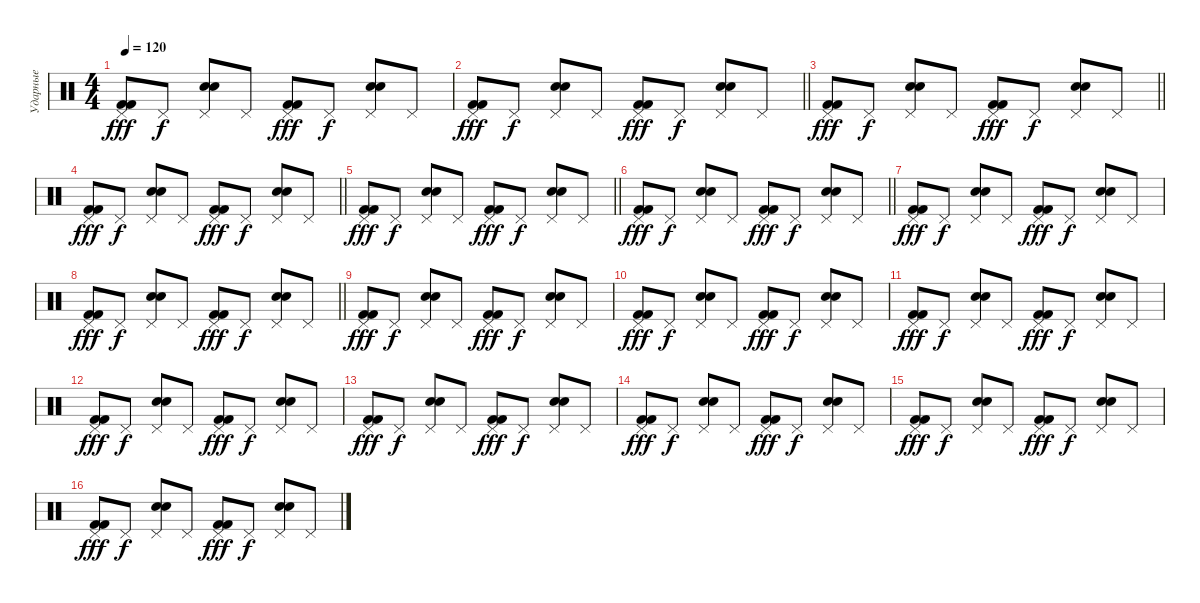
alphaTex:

\track ("Ударные" "Ударные") {solo instrument percussion}
\staff {score}
\articulation defaults
\ts (4 4)
\tempo 120
\clef neutral
\ks c
("Kick (hit) 2" "Kick (hit) 2" "Pedal Hi-Hat (hit)").8{dy fff} "Pedal Hi-Hat (hit)".8{dy f} ("Electric Snare (hit)" "Electric Snare (hit)" "Pedal Hi-Hat (hit)").8 "Pedal Hi-Hat (hit)".8 ("Kick (hit) 2" "Kick (hit) 2" "Pedal Hi-Hat (hit)").8{dy fff} "Pedal Hi-Hat (hit)".8{dy f} ("Electric Snare (hit)" "Electric Snare (hit)" "Pedal Hi-Hat (hit)").8 "Pedal Hi-Hat (hit)".8 |
\barLineRight lightlight
("Kick (hit) 2" "Kick (hit) 2" "Pedal Hi-Hat (hit)").8{dy fff} "Pedal Hi-Hat (hit)".8{dy f} ("Electric Snare (hit)" "Electric Snare (hit)" "Pedal Hi-Hat (hit)").8 "Pedal Hi-Hat (hit)".8 ("Kick (hit) 2" "Kick (hit) 2" "Pedal Hi-Hat (hit)").8{dy fff} "Pedal Hi-Hat (hit)".8{dy f} ("Electric Snare (hit)" "Electric Snare (hit)" "Pedal Hi-Hat (hit)").8 "Pedal Hi-Hat (hit)".8 |
\barLineRight lightlight
("Kick (hit) 2" "Kick (hit) 2" "Pedal Hi-Hat (hit)").8{dy fff} "Pedal Hi-Hat (hit)".8{dy f} ("Electric Snare (hit)" "Electric Snare (hit)" "Pedal Hi-Hat (hit)").8 "Pedal Hi-Hat (hit)".8 ("Kick (hit) 2" "Kick (hit) 2" "Pedal Hi-Hat (hit)").8{dy fff} "Pedal Hi-Hat (hit)".8{dy f} ("Electric Snare (hit)" "Electric Snare (hit)" "Pedal Hi-Hat (hit)").8 "Pedal Hi-Hat (hit)".8 |
\barLineRight lightlight
("Kick (hit) 2" "Kick (hit) 2" "Pedal Hi-Hat (hit)").8{dy fff} "Pedal Hi-Hat (hit)".8{dy f} ("Electric Snare (hit)" "Electric Snare (hit)" "Pedal Hi-Hat (hit)").8 "Pedal Hi-Hat (hit)".8 ("Kick (hit) 2" "Kick (hit) 2" "Pedal Hi-Hat (hit)").8{dy fff} "Pedal Hi-Hat (hit)".8{dy f} ("Electric Snare (hit)" "Electric Snare (hit)" "Pedal Hi-Hat (hit)").8 "Pedal Hi-Hat (hit)".8 |
\barLineRight lightlight
("Kick (hit) 2" "Kick (hit) 2" "Pedal Hi-Hat (hit)").8{dy fff} "Pedal Hi-Hat (hit)".8{dy f} ("Electric Snare (hit)" "Electric Snare (hit)" "Pedal Hi-Hat (hit)").8 "Pedal Hi-Hat (hit)".8 ("Kick (hit) 2" "Kick (hit) 2" "Pedal Hi-Hat (hit)").8{dy fff} "Pedal Hi-Hat (hit)".8{dy f} ("Electric Snare (hit)" "Electric Snare (hit)" "Pedal Hi-Hat (hit)").8 "Pedal Hi-Hat (hit)".8 |
\barLineRight lightlight
("Kick (hit) 2" "Kick (hit) 2" "Pedal Hi-Hat (hit)").8{dy fff} "Pedal Hi-Hat (hit)".8{dy f} ("Electric Snare (hit)" "Electric Snare (hit)" "Pedal Hi-Hat (hit)").8 "Pedal Hi-Hat (hit)".8 ("Kick (hit) 2" "Kick (hit) 2" "Pedal Hi-Hat (hit)").8{dy fff} "Pedal Hi-Hat (hit)".8{dy f} ("Electric Snare (hit)" "Electric Snare (hit)" "Pedal Hi-Hat (hit)").8 "Pedal Hi-Hat (hit)".8 |
("Kick (hit) 2" "Kick (hit) 2" "Pedal Hi-Hat (hit)").8{dy fff} "Pedal Hi-Hat (hit)".8{dy f} ("Electric Snare (hit)" "Electric Snare (hit)" "Pedal Hi-Hat (hit)").8 "Pedal Hi-Hat (hit)".8 ("Kick (hit) 2" "Kick (hit) 2" "Pedal Hi-Hat (hit)").8{dy fff} "Pedal Hi-Hat (hit)".8{dy f} ("Electric Snare (hit)" "Electric Snare (hit)" "Pedal Hi-Hat (hit)").8 "Pedal Hi-Hat (hit)".8 |
\barLineRight lightlight
("Kick (hit) 2" "Kick (hit) 2" "Pedal Hi-Hat (hit)").8{dy fff} "Pedal Hi-Hat (hit)".8{dy f} ("Electric Snare (hit)" "Electric Snare (hit)" "Pedal Hi-Hat (hit)").8 "Pedal Hi-Hat (hit)".8 ("Kick (hit) 2" "Kick (hit) 2" "Pedal Hi-Hat (hit)").8{dy fff} "Pedal Hi-Hat (hit)".8{dy f} ("Electric Snare (hit)" "Electric Snare (hit)" "Pedal Hi-Hat (hit)").8 "Pedal Hi-Hat (hit)".8 |
("Kick (hit) 2" "Kick (hit) 2" "Pedal Hi-Hat (hit)").8{dy fff} "Pedal Hi-Hat (hit)".8{dy f} ("Electric Snare (hit)" "Electric Snare (hit)" "Pedal Hi-Hat (hit)").8 "Pedal Hi-Hat (hit)".8 ("Kick (hit) 2" "Kick (hit) 2" "Pedal Hi-Hat (hit)").8{dy fff} "Pedal Hi-Hat (hit)".8{dy f} ("Electric Snare (hit)" "Electric Snare (hit)" "Pedal Hi-Hat (hit)").8 "Pedal Hi-Hat (hit)".8 |
("Kick (hit) 2" "Kick (hit) 2" "Pedal Hi-Hat (hit)").8{dy fff} "Pedal Hi-Hat (hit)".8{dy f} ("Electric Snare (hit)" "Electric Snare (hit)" "Pedal Hi-Hat (hit)").8 "Pedal Hi-Hat (hit)".8 ("Kick (hit) 2" "Kick (hit) 2" "Pedal Hi-Hat (hit)").8{dy fff} "Pedal Hi-Hat (hit)".8{dy f} ("Electric Snare (hit)" "Electric Snare (hit)" "Pedal Hi-Hat (hit)").8 "Pedal Hi-Hat (hit)".8 |
("Kick (hit) 2" "Kick (hit) 2" "Pedal Hi-Hat (hit)").8{dy fff} "Pedal Hi-Hat (hit)".8{dy f} ("Electric Snare (hit)" "Electric Snare (hit)" "Pedal Hi-Hat (hit)").8 "Pedal Hi-Hat (hit)".8 ("Kick (hit) 2" "Kick (hit) 2" "Pedal Hi-Hat (hit)").8{dy fff} "Pedal Hi-Hat (hit)".8{dy f} ("Electric Snare (hit)" "Electric Snare (hit)" "Pedal Hi-Hat (hit)").8 "Pedal Hi-Hat (hit)".8 |
("Kick (hit) 2" "Kick (hit) 2" "Pedal Hi-Hat (hit)").8{dy fff} "Pedal Hi-Hat (hit)".8{dy f} ("Electric Snare (hit)" "Electric Snare (hit)" "Pedal Hi-Hat (hit)").8 "Pedal Hi-Hat (hit)".8 ("Kick (hit) 2" "Kick (hit) 2" "Pedal Hi-Hat (hit)").8{dy fff} "Pedal Hi-Hat (hit)".8{dy f} ("Electric Snare (hit)" "Electric Snare (hit)" "Pedal Hi-Hat (hit)").8 "Pedal Hi-Hat (hit)".8 |
("Kick (hit) 2" "Kick (hit) 2" "Pedal Hi-Hat (hit)").8{dy fff} "Pedal Hi-Hat (hit)".8{dy f} ("Electric Snare (hit)" "Electric Snare (hit)" "Pedal Hi-Hat (hit)").8 "Pedal Hi-Hat (hit)".8 ("Kick (hit) 2" "Kick (hit) 2" "Pedal Hi-Hat (hit)").8{dy fff} "Pedal Hi-Hat (hit)".8{dy f} ("Electric Snare (hit)" "Electric Snare (hit)" "Pedal Hi-Hat (hit)").8 "Pedal Hi-Hat (hit)".8 |
("Kick (hit) 2" "Kick (hit) 2" "Pedal Hi-Hat (hit)").8{dy fff} "Pedal Hi-Hat (hit)".8{dy f} ("Electric Snare (hit)" "Electric Snare (hit)" "Pedal Hi-Hat (hit)").8 "Pedal Hi-Hat (hit)".8 ("Kick (hit) 2" "Kick (hit) 2" "Pedal Hi-Hat (hit)").8{dy fff} "Pedal Hi-Hat (hit)".8{dy f} ("Electric Snare (hit)" "Electric Snare (hit)" "Pedal Hi-Hat (hit)").8 "Pedal Hi-Hat (hit)".8 |
("Kick (hit) 2" "Kick (hit) 2" "Pedal Hi-Hat (hit)").8{dy fff} "Pedal Hi-Hat (hit)".8{dy f} ("Electric Snare (hit)" "Electric Snare (hit)" "Pedal Hi-Hat (hit)").8 "Pedal Hi-Hat (hit)".8 ("Kick (hit) 2" "Kick (hit) 2" "Pedal Hi-Hat (hit)").8{dy fff} "Pedal Hi-Hat (hit)".8{dy f} ("Electric Snare (hit)" "Electric Snare (hit)" "Pedal Hi-Hat (hit)").8 "Pedal Hi-Hat (hit)".8 |
("Kick (hit) 2" "Kick (hit) 2" "Pedal Hi-Hat (hit)").8{dy fff} "Pedal Hi-Hat (hit)".8{dy f} ("Electric Snare (hit)" "Electric Snare (hit)" "Pedal Hi-Hat (hit)").8 "Pedal Hi-Hat (hit)".8 ("Kick (hit) 2" "Kick (hit) 2" "Pedal Hi-Hat (hit)").8{dy fff} "Pedal Hi-Hat (hit)".8{dy f} ("Electric Snare (hit)" "Electric Snare (hit)" "Pedal Hi-Hat (hit)").8 "Pedal Hi-Hat (hit)".8
